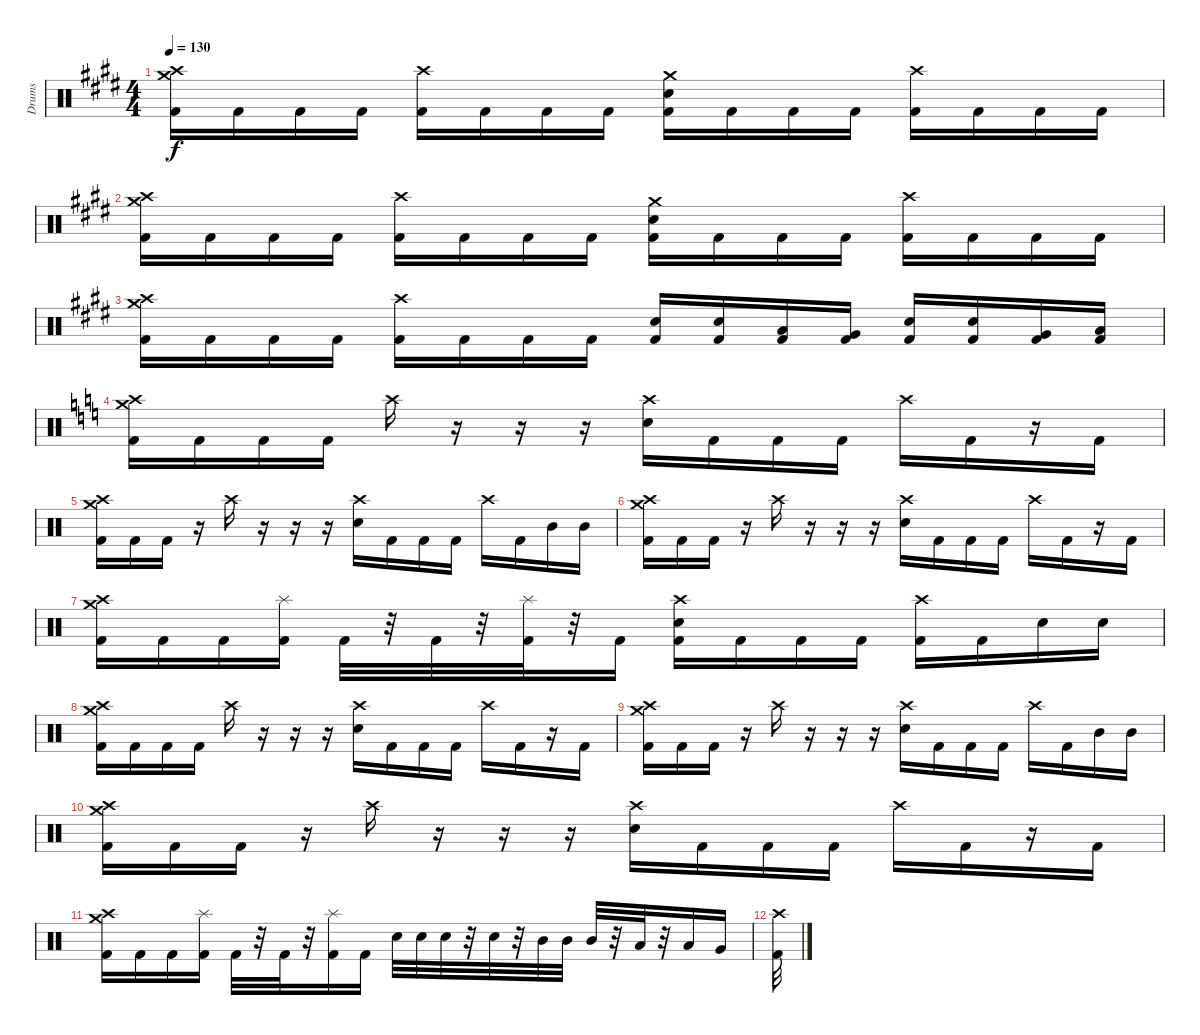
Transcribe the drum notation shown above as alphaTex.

\track ("Drums" "Drums") {instrument percussion}
\staff {score}
\articulation defaults
\ts (4 4)
\tempo 130
\clef neutral
\ks c#minor
("Crash high (hit)" "Crash medium (hit)" "Kick (hit) 2").16{dy f} "Kick (hit) 2".16 "Kick (hit) 2".16 "Kick (hit) 2".16 ("Crash high (hit)" "Kick (hit) 2").16 "Kick (hit) 2".16 "Kick (hit) 2".16 "Kick (hit) 2".16 ("Crash medium (hit)" "Electric Snare (hit)" "Kick (hit) 2").16 "Kick (hit) 2".16 "Kick (hit) 2".16 "Kick (hit) 2".16 ("Crash high (hit)" "Kick (hit) 2").16 "Kick (hit) 2".16 "Kick (hit) 2".16 "Kick (hit) 2".16 |
("Crash high (hit)" "Crash medium (hit)" "Kick (hit) 2").16 "Kick (hit) 2".16 "Kick (hit) 2".16 "Kick (hit) 2".16 ("Crash high (hit)" "Kick (hit) 2").16 "Kick (hit) 2".16 "Kick (hit) 2".16 "Kick (hit) 2".16 ("Crash medium (hit)" "Electric Snare (hit)" "Kick (hit) 2").16 "Kick (hit) 2".16 "Kick (hit) 2".16 "Kick (hit) 2".16 ("Crash high (hit)" "Kick (hit) 2").16 "Kick (hit) 2".16 "Kick (hit) 2".16 "Kick (hit) 2".16 |
("Crash high (hit)" "Crash medium (hit)" "Kick (hit) 2").16 "Kick (hit) 2".16 "Kick (hit) 2".16 "Kick (hit) 2".16 ("Crash high (hit)" "Kick (hit) 2").16 "Kick (hit) 2".16 "Kick (hit) 2".16 "Kick (hit) 2".16 ("Electric Snare (hit)" "Kick (hit) 2").16 ("Electric Snare (hit)" "Kick (hit) 2").16 ("Low Tom (hit)" "Kick (hit) 2").16 ("Very Low Tom (hit)" "Kick (hit) 2").16 ("Electric Snare (hit)" "Kick (hit) 2").16 ("Electric Snare (hit)" "Kick (hit) 2").16 ("Very Low Tom (hit)" "Kick (hit) 2").16 ("Low Tom (hit)" "Kick (hit) 2").16 |
\ks c
("Crash high (hit)" "Crash medium (hit)" "Kick (hit) 2").16 "Kick (hit) 2".16 "Kick (hit) 2".16 "Kick (hit) 2".16 "Crash high (hit)".16 r.16 r.16 r.16 ("Crash high (hit)" "Electric Snare (hit)").16 "Kick (hit) 2".16 "Kick (hit) 2".16 "Kick (hit) 2".16 "Crash high (hit)".16 "Kick (hit) 2".16 r.16 "Kick (hit) 2".16 |
("Crash high (hit)" "Crash medium (hit)" "Kick (hit) 2").16 "Kick (hit) 2".16 "Kick (hit) 2".16 r.16 "Crash high (hit)".16 r.16 r.16 r.16 ("Crash high (hit)" "Electric Snare (hit)").16 "Kick (hit) 2".16 "Kick (hit) 2".16 "Kick (hit) 2".16 "Crash high (hit)".16 "Kick (hit) 2".16 "Mid Tom (hit)".16 "Mid Tom (hit)".16 |
("Crash high (hit)" "Crash medium (hit)" "Kick (hit) 2").16 "Kick (hit) 2".16 "Kick (hit) 2".16 r.16 "Crash high (hit)".16 r.16 r.16 r.16 ("Crash high (hit)" "Electric Snare (hit)").16 "Kick (hit) 2".16 "Kick (hit) 2".16 "Kick (hit) 2".16 "Crash high (hit)".16 "Kick (hit) 2".16 r.16 "Kick (hit) 2".16 |
("Crash high (hit)" "Crash medium (hit)" "Kick (hit) 2").16 "Kick (hit) 2".16 "Kick (hit) 2".16 ("Splash (hit)" "Kick (hit) 2").16 "Kick (hit) 2".32 r.32 "Kick (hit) 2".32 r.32 ("Splash (hit)" "Kick (hit) 2").32 r.32 "Kick (hit) 2".16 ("Crash high (hit)" "Electric Snare (hit)" "Kick (hit) 2").16 "Kick (hit) 2".16 "Kick (hit) 2".16 "Kick (hit) 2".16 ("Crash high (hit)" "Kick (hit) 2").16 "Kick (hit) 2".16 "Electric Snare (hit)".16 "Electric Snare (hit)".16 |
("Crash high (hit)" "Crash medium (hit)" "Kick (hit) 2").16 "Kick (hit) 2".16 "Kick (hit) 2".16 "Kick (hit) 2".16 "Crash high (hit)".16 r.16 r.16 r.16 ("Crash high (hit)" "Electric Snare (hit)").16 "Kick (hit) 2".16 "Kick (hit) 2".16 "Kick (hit) 2".16 "Crash high (hit)".16 "Kick (hit) 2".16 r.16 "Kick (hit) 2".16 |
("Crash high (hit)" "Crash medium (hit)" "Kick (hit) 2").16 "Kick (hit) 2".16 "Kick (hit) 2".16 r.16 "Crash high (hit)".16 r.16 r.16 r.16 ("Crash high (hit)" "Electric Snare (hit)").16 "Kick (hit) 2".16 "Kick (hit) 2".16 "Kick (hit) 2".16 "Crash high (hit)".16 "Kick (hit) 2".16 "Mid Tom (hit)".16 "Mid Tom (hit)".16 |
("Crash high (hit)" "Crash medium (hit)" "Kick (hit) 2").16 "Kick (hit) 2".16 "Kick (hit) 2".16 r.16 "Crash high (hit)".16 r.16 r.16 r.16 ("Crash high (hit)" "Electric Snare (hit)").16 "Kick (hit) 2".16 "Kick (hit) 2".16 "Kick (hit) 2".16 "Crash high (hit)".16 "Kick (hit) 2".16 r.16 "Kick (hit) 2".16 |
("Crash high (hit)" "Crash medium (hit)" "Kick (hit) 2").16 "Kick (hit) 2".16 "Kick (hit) 2".16 ("Splash (hit)" "Kick (hit) 2").16 "Kick (hit) 2".32 r.32 "Kick (hit) 2".32 r.32 ("Splash (hit)" "Kick (hit) 2").16 "Kick (hit) 2".16 "Electric Snare (hit)".32 "Electric Snare (hit)".32 "Electric Snare (hit)".32 r.32 "Electric Snare (hit)".32 r.32 "Mid Tom (hit)".32 "Mid Tom (hit)".32 "Mid Tom (hit)".32 r.32 "Low Tom (hit)".32 r.32 "Low Tom (hit)".16 "Very Low Tom (hit)".16 |
("Crash high (hit)" "Kick (hit) 2").32
